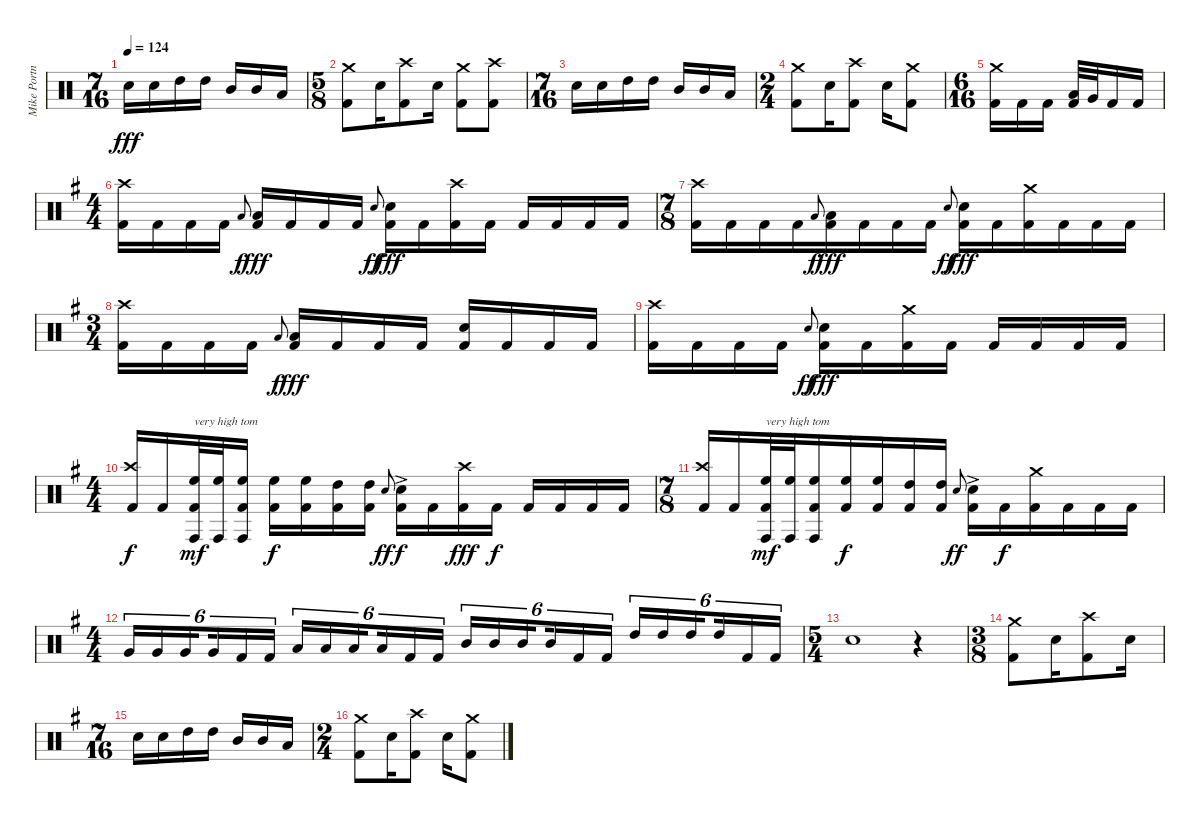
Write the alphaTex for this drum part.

\track ("Mike Portnoy - Drums" "Mike Portn") {instrument percussion}
\staff {score}
\articulation defaults
\ts (7 16)
\tempo 124
\clef neutral
\ks c "Snare (hit) 2".16{dy fff} "Snare (hit) 2".16 "High Tom (hit)".16 "High Tom (hit)".16 "Mid Tom (hit)".16 "Mid Tom (hit)".16 "Low Tom (hit)".16
|
\ts (5 8)
("Crash medium (hit)" "Kick (hit) 2").8 "Snare (hit) 2".16 ("Crash high (hit)" "Kick (hit) 2").8 "Snare (hit) 2".16 ("Crash medium (hit)" "Kick (hit) 2").8 ("Crash high (hit)" "Kick (hit) 2").8 |
\ts (7 16)
"Snare (hit) 2".16 "Snare (hit) 2".16 "High Tom (hit)".16 "High Tom (hit)".16 "Mid Tom (hit)".16 "Mid Tom (hit)".16 "Low Tom (hit)".16 |
\ts (2 4)
("Crash medium (hit)" "Kick (hit) 2").8 "Snare (hit) 2".16 ("Crash high (hit)" "Kick (hit) 2").8 "Snare (hit) 2".16 ("Crash medium (hit)" "Kick (hit) 2").8 |
\ts (6 16)
("Crash medium (hit)" "Kick (hit) 2").16 "Kick (hit) 2".16 "Kick (hit) 2".16 ("Low Tom (hit)" "Kick (hit) 2").32 "Very Low Tom (hit)".32 "Kick (hit) 2".16 "Kick (hit) 2".16 |
\ts (4 4)
\ks g
("Crash high (hit)" "Kick (hit) 2").16 "Kick (hit) 2".16 "Kick (hit) 2".16 "Kick (hit) 2".16 "Low Tom (hit)".8{gr onbeat dy f} ("Low Tom (hit)" "Kick (hit) 2").16{dy fff} "Kick (hit) 2".16 "Kick (hit) 2".16 "Kick (hit) 2".16 "Electric Snare (hit)".8{gr onbeat dy ff} ("Electric Snare (hit)" "Kick (hit) 2").16{dy fff} "Kick (hit) 2".16 ("Crash high (hit)" "Kick (hit) 2").16 "Kick (hit) 2".16 "Kick (hit) 2".16 "Kick (hit) 2".16 "Kick (hit) 2".16 "Kick (hit) 2".16 |
\ts (7 8)
("Crash high (hit)" "Kick (hit) 2").16 "Kick (hit) 2".16 "Kick (hit) 2".16 "Kick (hit) 2".16 "Low Tom (hit)".8{gr onbeat dy f} ("Low Tom (hit)" "Kick (hit) 2").16{dy fff} "Kick (hit) 2".16 "Kick (hit) 2".16 "Kick (hit) 2".16 "Electric Snare (hit)".8{gr onbeat dy ff} ("Electric Snare (hit)" "Kick (hit) 2").16{dy fff} "Kick (hit) 2".16 ("Crash medium (hit)" "Kick (hit) 2").16 "Kick (hit) 2".16 "Kick (hit) 2".16 "Kick (hit) 2".16 |
\ts (3 4)
("Crash high (hit)" "Kick (hit) 2").16 "Kick (hit) 2".16 "Kick (hit) 2".16 "Kick (hit) 2".16 "Low Tom (hit)".8{gr onbeat dy f} ("Low Tom (hit)" "Kick (hit) 2").16{dy fff} "Kick (hit) 2".16 "Kick (hit) 2".16 "Kick (hit) 2".16 ("Electric Snare (hit)" "Kick (hit) 2").16 "Kick (hit) 2".16 "Kick (hit) 2".16 "Kick (hit) 2".16 |
("Crash high (hit)" "Kick (hit) 2").16 "Kick (hit) 2".16 "Kick (hit) 2".16 "Kick (hit) 2".16 "Electric Snare (hit)".8{gr onbeat dy ff} ("Electric Snare (hit)" "Kick (hit) 2").16{dy fff} "Kick (hit) 2".16 ("Crash medium (hit)" "Kick (hit) 2").16 "Kick (hit) 2".16 "Kick (hit) 2".16 "Kick (hit) 2".16 "Kick (hit) 2".16 "Kick (hit) 2".16 |
\ts (4 4)
("Crash high (hit)" "Kick (hit) 2").16{dy f} "Kick (hit) 2".16 ("High Floor Tom (hit)" "Conga high (hit)" "Kick (hit) 2").32{txt "very high tom" dy mf} ("High Floor Tom (hit)" "Conga high (hit)").32 ("High Floor Tom (hit)" "Conga high (hit)" "Kick (hit) 2").16 ("High Floor Tom (hit)" "Kick (hit) 2").16{dy f} ("High Floor Tom (hit)" "Kick (hit) 2").16 ("High Tom (hit)" "Kick (hit) 2").16 ("High Tom (hit)" "Kick (hit) 2").16 "Electric Snare (hit)".8{gr onbeat dy ff} ("Electric Snare (hit)"{ac} "Kick (hit) 2").16{dy f} "Kick (hit) 2".16 ("Crash high (hit)" "Kick (hit) 2").16{dy fff} "Kick (hit) 2".16{dy f} "Kick (hit) 2".16 "Kick (hit) 2".16 "Kick (hit) 2".16 "Kick (hit) 2".16 |
\ts (7 8)
("Crash high (hit)" "Kick (hit) 2").16 "Kick (hit) 2".16 ("High Floor Tom (hit)" "Conga high (hit)" "Kick (hit) 2").32{txt "very high tom" dy mf} ("High Floor Tom (hit)" "Conga high (hit)").32 ("High Floor Tom (hit)" "Conga high (hit)" "Kick (hit) 2").16 ("High Floor Tom (hit)" "Kick (hit) 2").16{dy f} ("High Floor Tom (hit)" "Kick (hit) 2").16 ("High Tom (hit)" "Kick (hit) 2").16 ("High Tom (hit)" "Kick (hit) 2").16 "Electric Snare (hit)".8{gr onbeat dy ff} ("Electric Snare (hit)"{ac} "Kick (hit) 2").16 "Kick (hit) 2".16{dy f} ("Crash medium (hit)" "Kick (hit) 2").16 "Kick (hit) 2".16 "Kick (hit) 2".16 "Kick (hit) 2".16 |
\ts (4 4)
"Very Low Tom (hit)".16{tu (6 4)} "Very Low Tom (hit)".16{tu (6 4)} "Very Low Tom (hit)".16{tu (6 4) beam splitsecondary} "Very Low Tom (hit)".16{tu (6 4)} "Kick (hit) 2".16{tu (6 4)} "Kick (hit) 2".16{tu (6 4)} "Low Tom (hit)".16{tu (6 4)} "Low Tom (hit)".16{tu (6 4)} "Low Tom (hit)".16{tu (6 4) beam splitsecondary} "Low Tom (hit)".16{tu (6 4)} "Kick (hit) 2".16{tu (6 4)} "Kick (hit) 2".16{tu (6 4)} "Mid Tom (hit)".16{tu (6 4)} "Mid Tom (hit)".16{tu (6 4)} "Mid Tom (hit)".16{tu (6 4) beam splitsecondary} "Mid Tom (hit)".16{tu (6 4)} "Kick (hit) 2".16{tu (6 4)} "Kick (hit) 2".16{tu (6 4)} "High Tom (hit)".16{tu (6 4)} "High Tom (hit)".16{tu (6 4)} "High Tom (hit)".16{tu (6 4) beam splitsecondary} "High Tom (hit)".16{tu (6 4)} "Kick (hit) 2".16{tu (6 4)} "Kick (hit) 2".16{tu (6 4)} |
\ts (5 4)
"Snare (hit) 2".1 r.4 |
\ts (3 8)
("Crash medium (hit)" "Kick (hit) 2").8 "Snare (hit) 2".16 ("Crash high (hit)" "Kick (hit) 2").8 "Snare (hit) 2".16 |
\ts (7 16)
"Snare (hit) 2".16 "Snare (hit) 2".16 "High Tom (hit)".16 "High Tom (hit)".16 "Mid Tom (hit)".16 "Mid Tom (hit)".16 "Low Tom (hit)".16 |
\ts (2 4)
("Crash medium (hit)" "Kick (hit) 2").8 "Snare (hit) 2".16 ("Crash high (hit)" "Kick (hit) 2").8 "Snare (hit) 2".16 ("Crash medium (hit)" "Kick (hit) 2").8
